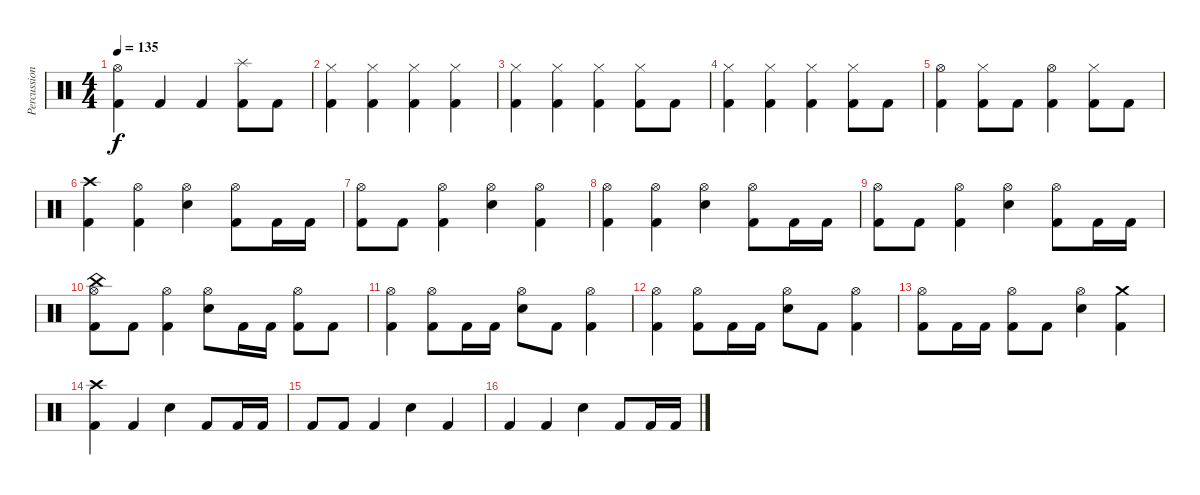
\track ("Percussion" "Percussion") {instrument percussion}
\staff {score}
\articulation defaults
\ts (4 4)
\tempo 135
\clef neutral
\ks c
("Hi-Hat (open)" "Kick (hit) 2").4{dy f} "Kick (hit) 2".4 "Kick (hit) 2".4 ("Splash (hit)" "Kick (hit) 2").8 "Kick (hit) 2".8 |
("Hi-Hat (closed)" "Kick (hit) 2").4 ("Hi-Hat (closed)" "Kick (hit) 2").4 ("Hi-Hat (closed)" "Kick (hit) 2").4 ("Hi-Hat (closed)" "Kick (hit) 2").4 |
("Hi-Hat (closed)" "Kick (hit) 2").4 ("Hi-Hat (closed)" "Kick (hit) 2").4 ("Hi-Hat (closed)" "Kick (hit) 2").4 ("Hi-Hat (closed)" "Kick (hit) 2").8 "Kick (hit) 2".8 |
("Hi-Hat (closed)" "Kick (hit) 2").4 ("Hi-Hat (closed)" "Kick (hit) 2").4 ("Hi-Hat (closed)" "Kick (hit) 2").4 ("Hi-Hat (closed)" "Kick (hit) 2").8 "Kick (hit) 2".8 |
("Hi-Hat (open)" "Kick (hit) 2").4 ("Hi-Hat (closed)" "Kick (hit) 2").8 "Kick (hit) 2".8 ("Hi-Hat (open)" "Kick (hit) 2").4 ("Hi-Hat (closed)" "Kick (hit) 2").8 "Kick (hit) 2".8 |
("Crash high (hit)" "Kick (hit) 2").4 ("Hi-Hat (open)" "Kick (hit) 2").4 ("Hi-Hat (open)" "Electric Snare (hit)").4 ("Hi-Hat (open)" "Kick (hit) 2").8 "Kick (hit) 2".16 "Kick (hit) 2".16 |
("Hi-Hat (open)" "Kick (hit) 2").8 "Kick (hit) 2".8 ("Hi-Hat (open)" "Kick (hit) 2").4 ("Hi-Hat (open)" "Electric Snare (hit)").4 ("Hi-Hat (open)" "Kick (hit) 2").4 |
("Hi-Hat (open)" "Kick (hit) 2").4 ("Hi-Hat (open)" "Kick (hit) 2").4 ("Hi-Hat (open)" "Electric Snare (hit)").4 ("Hi-Hat (open)" "Kick (hit) 2").8 "Kick (hit) 2".16 "Kick (hit) 2".16 |
("Hi-Hat (open)" "Kick (hit) 2").8 "Kick (hit) 2".8 ("Hi-Hat (open)" "Kick (hit) 2").4 ("Hi-Hat (open)" "Electric Snare (hit)").4 ("Hi-Hat (open)" "Kick (hit) 2").8 "Kick (hit) 2".16 "Kick (hit) 2".16 |
("Hi-Hat (open)" "China (hit)" "Kick (hit) 2").8 "Kick (hit) 2".8 ("Hi-Hat (open)" "Kick (hit) 2").4 ("Hi-Hat (open)" "Electric Snare (hit)").8 "Kick (hit) 2".16 "Kick (hit) 2".16 ("Hi-Hat (open)" "Kick (hit) 2").8 "Kick (hit) 2".8 |
("Hi-Hat (open)" "Kick (hit) 2").4 ("Hi-Hat (open)" "Kick (hit) 2").8 "Kick (hit) 2".16 "Kick (hit) 2".16 ("Hi-Hat (open)" "Electric Snare (hit)").8 "Kick (hit) 2".8 ("Hi-Hat (open)" "Kick (hit) 2").4 |
("Hi-Hat (open)" "Kick (hit) 2").4 ("Hi-Hat (open)" "Kick (hit) 2").8 "Kick (hit) 2".16 "Kick (hit) 2".16 ("Hi-Hat (open)" "Electric Snare (hit)").8 "Kick (hit) 2".8 ("Hi-Hat (open)" "Kick (hit) 2").4 |
("Hi-Hat (open)" "Kick (hit) 2").8 "Kick (hit) 2".16 "Kick (hit) 2".16 ("Hi-Hat (open)" "Kick (hit) 2").8 "Kick (hit) 2".8 ("Hi-Hat (open)" "Electric Snare (hit)").4 ("Crash medium (hit)" "Kick (hit) 2").4 |
("Crash high (hit)" "Kick (hit) 2").4 "Kick (hit) 2".4 "Electric Snare (hit)".4 "Kick (hit) 2".8 "Kick (hit) 2".16 "Kick (hit) 2".16 |
"Kick (hit) 2".8 "Kick (hit) 2".8 "Kick (hit) 2".4 "Electric Snare (hit)".4 "Kick (hit) 2".4 |
"Kick (hit) 2".4 "Kick (hit) 2".4 "Electric Snare (hit)".4 "Kick (hit) 2".8 "Kick (hit) 2".16 "Kick (hit) 2".16
